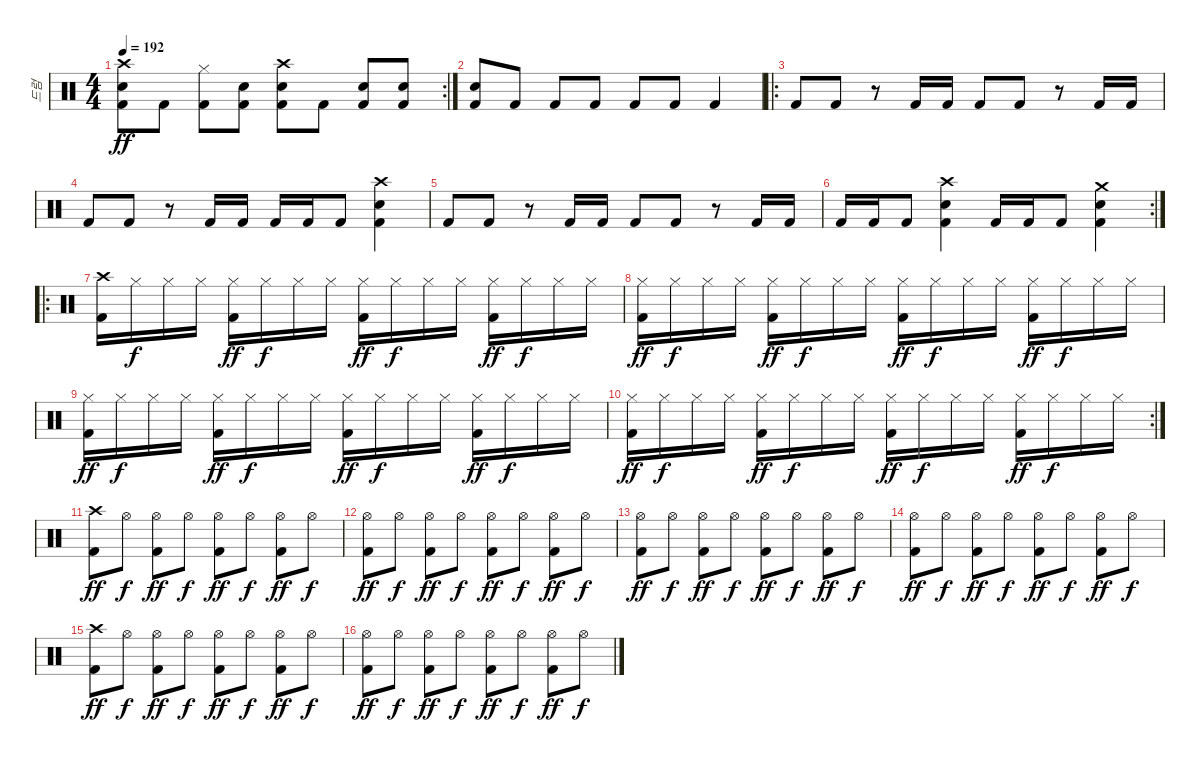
\track ("드럼" "드럼") {instrument percussion}
\staff {score}
\articulation defaults
\rc 2
\ts (4 4)
\tempo 192
\clef neutral
\ks c
("Crash high (hit)" "Electric Snare (hit)" "Kick (hit) 2").8{dy ff} "Kick (hit) 2".8 ("Hi-Hat (closed)" "Kick (hit) 2").8 ("Electric Snare (hit)" "Kick (hit) 2").8 ("Crash high (hit)" "Electric Snare (hit)" "Kick (hit) 2").8 "Kick (hit) 2".8 ("Electric Snare (hit)" "Kick (hit) 2").8 ("Electric Snare (hit)" "Kick (hit) 2").8 |
("Electric Snare (hit)" "Kick (hit) 2").8 "Kick (hit) 2".8 "Kick (hit) 2".8 "Kick (hit) 2".8 "Kick (hit) 2".8 "Kick (hit) 2".8 "Kick (hit) 2".4 |
\ro "Kick (hit) 2".8 "Kick (hit) 2".8
r.8 "Kick (hit) 2".16 "Kick (hit) 2".16 "Kick (hit) 2".8 "Kick (hit) 2".8 r.8 "Kick (hit) 2".16 "Kick (hit) 2".16 |
"Kick (hit) 2".8 "Kick (hit) 2".8 r.8 "Kick (hit) 2".16 "Kick (hit) 2".16 "Kick (hit) 2".16 "Kick (hit) 2".16 "Kick (hit) 2".8 ("Crash high (hit)" "Electric Snare (hit)" "Kick (hit) 2").4 |
"Kick (hit) 2".8 "Kick (hit) 2".8 r.8 "Kick (hit) 2".16 "Kick (hit) 2".16 "Kick (hit) 2".8 "Kick (hit) 2".8 r.8 "Kick (hit) 2".16 "Kick (hit) 2".16 |
\rc 2 "Kick (hit) 2".16 "Kick (hit) 2".16 "Kick (hit) 2".8
("Crash high (hit)" "Electric Snare (hit)" "Kick (hit) 2").4 "Kick (hit) 2".16 "Kick (hit) 2".16 "Kick (hit) 2".8 ("Crash medium (hit)" "Electric Snare (hit)" "Kick (hit) 2").4 |
\ro
("Crash high (hit)" "Kick (hit) 2").16 "Hi-Hat (closed)".16{dy f} "Hi-Hat (closed)".16 "Hi-Hat (closed)".16 ("Hi-Hat (closed)" "Kick (hit) 2").16{dy ff} "Hi-Hat (closed)".16{dy f} "Hi-Hat (closed)".16 "Hi-Hat (closed)".16 ("Hi-Hat (closed)" "Kick (hit) 2").16{dy ff} "Hi-Hat (closed)".16{dy f} "Hi-Hat (closed)".16 "Hi-Hat (closed)".16 ("Hi-Hat (closed)" "Kick (hit) 2").16{dy ff} "Hi-Hat (closed)".16{dy f} "Hi-Hat (closed)".16 "Hi-Hat (closed)".16 |
("Hi-Hat (closed)" "Kick (hit) 2").16{dy ff} "Hi-Hat (closed)".16{dy f} "Hi-Hat (closed)".16 "Hi-Hat (closed)".16 ("Hi-Hat (closed)" "Kick (hit) 2").16{dy ff} "Hi-Hat (closed)".16{dy f} "Hi-Hat (closed)".16 "Hi-Hat (closed)".16 ("Hi-Hat (closed)" "Kick (hit) 2").16{dy ff} "Hi-Hat (closed)".16{dy f} "Hi-Hat (closed)".16 "Hi-Hat (closed)".16 ("Hi-Hat (closed)" "Kick (hit) 2").16{dy ff} "Hi-Hat (closed)".16{dy f} "Hi-Hat (closed)".16 "Hi-Hat (closed)".16 |
("Hi-Hat (closed)" "Kick (hit) 2").16{dy ff} "Hi-Hat (closed)".16{dy f} "Hi-Hat (closed)".16 "Hi-Hat (closed)".16 ("Hi-Hat (closed)" "Kick (hit) 2").16{dy ff} "Hi-Hat (closed)".16{dy f} "Hi-Hat (closed)".16 "Hi-Hat (closed)".16 ("Hi-Hat (closed)" "Kick (hit) 2").16{dy ff} "Hi-Hat (closed)".16{dy f} "Hi-Hat (closed)".16 "Hi-Hat (closed)".16 ("Hi-Hat (closed)" "Kick (hit) 2").16{dy ff} "Hi-Hat (closed)".16{dy f} "Hi-Hat (closed)".16 "Hi-Hat (closed)".16 |
\rc 2
("Hi-Hat (closed)" "Kick (hit) 2").16{dy ff} "Hi-Hat (closed)".16{dy f} "Hi-Hat (closed)".16 "Hi-Hat (closed)".16 ("Hi-Hat (closed)" "Kick (hit) 2").16{dy ff} "Hi-Hat (closed)".16{dy f} "Hi-Hat (closed)".16 "Hi-Hat (closed)".16 ("Hi-Hat (closed)" "Kick (hit) 2").16{dy ff} "Hi-Hat (closed)".16{dy f} "Hi-Hat (closed)".16 "Hi-Hat (closed)".16 ("Hi-Hat (closed)" "Kick (hit) 2").16{dy ff} "Hi-Hat (closed)".16{dy f} "Hi-Hat (closed)".16 "Hi-Hat (closed)".16 |
("Crash high (hit)" "Kick (hit) 2").8{dy ff} "Hi-Hat (open)".8{dy f} ("Hi-Hat (open)" "Kick (hit) 2").8{dy ff} "Hi-Hat (open)".8{dy f} ("Hi-Hat (open)" "Kick (hit) 2").8{dy ff} "Hi-Hat (open)".8{dy f} ("Hi-Hat (open)" "Kick (hit) 2").8{dy ff} "Hi-Hat (open)".8{dy f} |
("Hi-Hat (open)" "Kick (hit) 2").8{dy ff} "Hi-Hat (open)".8{dy f} ("Hi-Hat (open)" "Kick (hit) 2").8{dy ff} "Hi-Hat (open)".8{dy f} ("Hi-Hat (open)" "Kick (hit) 2").8{dy ff} "Hi-Hat (open)".8{dy f} ("Hi-Hat (open)" "Kick (hit) 2").8{dy ff} "Hi-Hat (open)".8{dy f} |
("Hi-Hat (open)" "Kick (hit) 2").8{dy ff} "Hi-Hat (open)".8{dy f} ("Hi-Hat (open)" "Kick (hit) 2").8{dy ff} "Hi-Hat (open)".8{dy f} ("Hi-Hat (open)" "Kick (hit) 2").8{dy ff} "Hi-Hat (open)".8{dy f} ("Hi-Hat (open)" "Kick (hit) 2").8{dy ff} "Hi-Hat (open)".8{dy f} |
("Hi-Hat (open)" "Kick (hit) 2").8{dy ff} "Hi-Hat (open)".8{dy f} ("Hi-Hat (open)" "Kick (hit) 2").8{dy ff} "Hi-Hat (open)".8{dy f} ("Hi-Hat (open)" "Kick (hit) 2").8{dy ff} "Hi-Hat (open)".8{dy f} ("Hi-Hat (open)" "Kick (hit) 2").8{dy ff} "Hi-Hat (open)".8{dy f} |
("Crash high (hit)" "Kick (hit) 2").8{dy ff} "Hi-Hat (open)".8{dy f} ("Hi-Hat (open)" "Kick (hit) 2").8{dy ff} "Hi-Hat (open)".8{dy f} ("Hi-Hat (open)" "Kick (hit) 2").8{dy ff} "Hi-Hat (open)".8{dy f} ("Hi-Hat (open)" "Kick (hit) 2").8{dy ff} "Hi-Hat (open)".8{dy f} |
("Hi-Hat (open)" "Kick (hit) 2").8{dy ff} "Hi-Hat (open)".8{dy f} ("Hi-Hat (open)" "Kick (hit) 2").8{dy ff} "Hi-Hat (open)".8{dy f} ("Hi-Hat (open)" "Kick (hit) 2").8{dy ff} "Hi-Hat (open)".8{dy f} ("Hi-Hat (open)" "Kick (hit) 2").8{dy ff} "Hi-Hat (open)".8{dy f}
